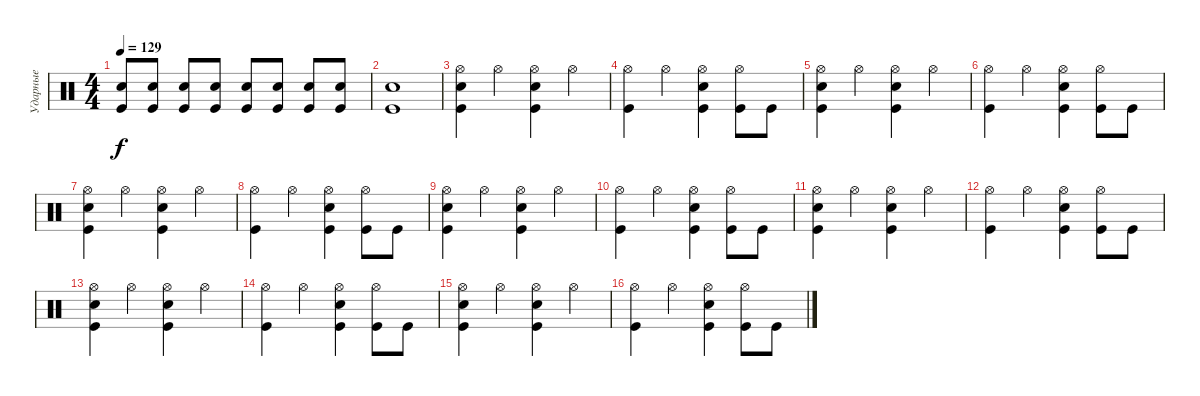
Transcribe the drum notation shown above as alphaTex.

\track ("Ударные" "Ударные") {instrument percussion}
\staff {score}
\articulation defaults
\ts (4 4)
\tempo 129
\clef neutral
\ks c
("Kick (hit)" "Snare (hit) 2").8{dy f} ("Kick (hit)" "Snare (hit) 2").8 ("Kick (hit)" "Snare (hit) 2").8 ("Kick (hit)" "Snare (hit) 2").8 ("Kick (hit)" "Snare (hit) 2").8 ("Kick (hit)" "Snare (hit) 2").8 ("Kick (hit)" "Snare (hit) 2").8 ("Kick (hit)" "Snare (hit) 2").8 |
("Kick (hit)" "Snare (hit) 2").1 |
("Hi-Hat (open)" "Snare (hit) 2" "Kick (hit)").4 "Hi-Hat (open)".4 ("Kick (hit)" "Hi-Hat (open)" "Snare (hit) 2").4 "Hi-Hat (open)".4 |
("Hi-Hat (open)" "Kick (hit)").4 "Hi-Hat (open)".4 ("Kick (hit)" "Hi-Hat (open)" "Snare (hit) 2").4 ("Hi-Hat (open)" "Kick (hit)").8 "Kick (hit)".8 |
("Hi-Hat (open)" "Snare (hit) 2" "Kick (hit)").4 "Hi-Hat (open)".4 ("Kick (hit)" "Hi-Hat (open)" "Snare (hit) 2").4 "Hi-Hat (open)".4 |
("Hi-Hat (open)" "Kick (hit)").4 "Hi-Hat (open)".4 ("Kick (hit)" "Hi-Hat (open)" "Snare (hit) 2").4 ("Hi-Hat (open)" "Kick (hit)").8 "Kick (hit)".8 |
("Hi-Hat (open)" "Snare (hit) 2" "Kick (hit)").4 "Hi-Hat (open)".4 ("Kick (hit)" "Hi-Hat (open)" "Snare (hit) 2").4 "Hi-Hat (open)".4 |
("Hi-Hat (open)" "Kick (hit)").4 "Hi-Hat (open)".4 ("Kick (hit)" "Hi-Hat (open)" "Snare (hit) 2").4 ("Hi-Hat (open)" "Kick (hit)").8 "Kick (hit)".8 |
("Hi-Hat (open)" "Snare (hit) 2" "Kick (hit)").4 "Hi-Hat (open)".4 ("Kick (hit)" "Hi-Hat (open)" "Snare (hit) 2").4 "Hi-Hat (open)".4 |
("Hi-Hat (open)" "Kick (hit)").4 "Hi-Hat (open)".4 ("Kick (hit)" "Hi-Hat (open)" "Snare (hit) 2").4 ("Hi-Hat (open)" "Kick (hit)").8 "Kick (hit)".8 |
("Hi-Hat (open)" "Snare (hit) 2" "Kick (hit)").4 "Hi-Hat (open)".4 ("Kick (hit)" "Hi-Hat (open)" "Snare (hit) 2").4 "Hi-Hat (open)".4 |
("Hi-Hat (open)" "Kick (hit)").4 "Hi-Hat (open)".4 ("Kick (hit)" "Hi-Hat (open)" "Snare (hit) 2").4 ("Hi-Hat (open)" "Kick (hit)").8 "Kick (hit)".8 |
("Hi-Hat (open)" "Snare (hit) 2" "Kick (hit)").4 "Hi-Hat (open)".4 ("Kick (hit)" "Hi-Hat (open)" "Snare (hit) 2").4 "Hi-Hat (open)".4 |
("Hi-Hat (open)" "Kick (hit)").4 "Hi-Hat (open)".4 ("Kick (hit)" "Hi-Hat (open)" "Snare (hit) 2").4 ("Hi-Hat (open)" "Kick (hit)").8 "Kick (hit)".8 |
("Hi-Hat (open)" "Snare (hit) 2" "Kick (hit)").4 "Hi-Hat (open)".4 ("Kick (hit)" "Hi-Hat (open)" "Snare (hit) 2").4 "Hi-Hat (open)".4 |
("Hi-Hat (open)" "Kick (hit)").4 "Hi-Hat (open)".4 ("Kick (hit)" "Hi-Hat (open)" "Snare (hit) 2").4 ("Hi-Hat (open)" "Kick (hit)").8 "Kick (hit)".8
